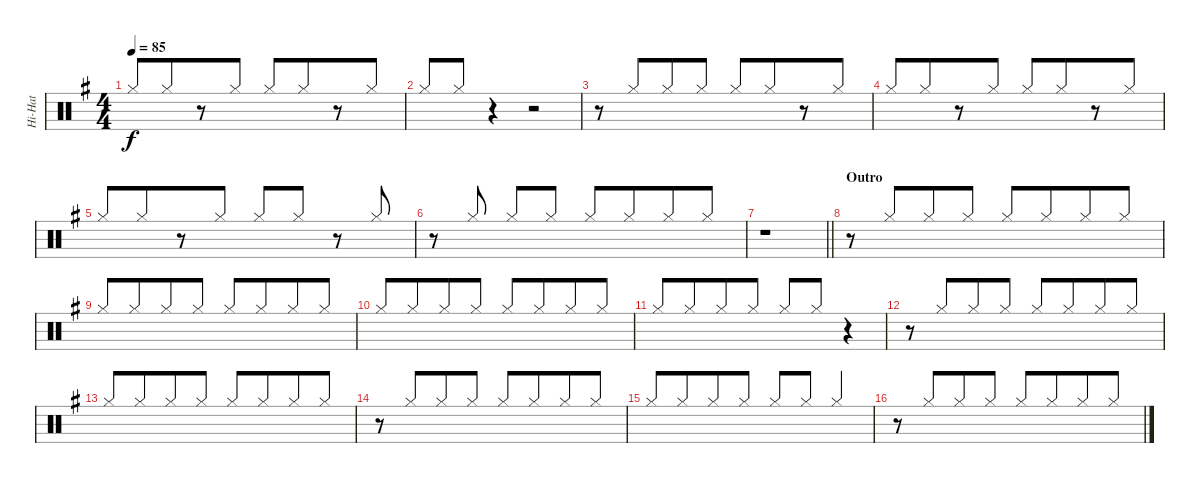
\track ("Hi-Hat" "Hi-Hat") {instrument percussion}
\staff {score}
\articulation defaults
\ts (4 4)
\tempo 85
\clef neutral
\ks g "Hi-Hat (closed)".8{dy f beam Up} "Hi-Hat (closed)".8{beam Up beam merge}
r.8 "Hi-Hat (closed)".8{beam Up} "Hi-Hat (closed)".8{beam Up} "Hi-Hat (closed)".8{beam Up beam merge} r.8 "Hi-Hat (closed)".8{beam Up} |
"Hi-Hat (closed)".8{beam Up} "Hi-Hat (closed)".8{beam Up} r.4 r.2 |
r.8 "Hi-Hat (closed)".8{beam Up beam merge} "Hi-Hat (closed)".8{beam Up} "Hi-Hat (closed)".8{beam Up} "Hi-Hat (closed)".8{beam Up} "Hi-Hat (closed)".8{beam Up beam merge} r.8 "Hi-Hat (closed)".8{beam Up} |
"Hi-Hat (closed)".8{beam Up} "Hi-Hat (closed)".8{beam Up beam merge} r.8 "Hi-Hat (closed)".8{beam Up} "Hi-Hat (closed)".8{beam Up} "Hi-Hat (closed)".8{beam Up beam merge} r.8 "Hi-Hat (closed)".8{beam Up} |
"Hi-Hat (closed)".8{beam Up} "Hi-Hat (closed)".8{beam Up beam merge} r.8 "Hi-Hat (closed)".8{beam Up} "Hi-Hat (closed)".8{beam Up} "Hi-Hat (closed)".8{beam Up} r.8 "Hi-Hat (closed)".8{beam Up} |
r.8 "Hi-Hat (closed)".8{beam Up} "Hi-Hat (closed)".8{beam Up} "Hi-Hat (closed)".8{beam Up} "Hi-Hat (closed)".8{beam Up} "Hi-Hat (closed)".8{beam Up beam merge} "Hi-Hat (closed)".8{beam Up} "Hi-Hat (closed)".8{beam Up} |
\barLineRight lightlight
r.1 |
\section ("" "Outro")
r.8 "Hi-Hat (closed)".8{beam Up beam merge} "Hi-Hat (closed)".8{beam Up} "Hi-Hat (closed)".8{beam Up} "Hi-Hat (closed)".8{beam Up} "Hi-Hat (closed)".8{beam Up beam merge} "Hi-Hat (closed)".8{beam Up} "Hi-Hat (closed)".8{beam Up} |
"Hi-Hat (closed)".8{beam Up} "Hi-Hat (closed)".8{beam Up beam merge} "Hi-Hat (closed)".8{beam Up} "Hi-Hat (closed)".8{beam Up} "Hi-Hat (closed)".8{beam Up} "Hi-Hat (closed)".8{beam Up beam merge} "Hi-Hat (closed)".8{beam Up} "Hi-Hat (closed)".8{beam Up} |
"Hi-Hat (closed)".8{beam Up} "Hi-Hat (closed)".8{beam Up beam merge} "Hi-Hat (closed)".8{beam Up} "Hi-Hat (closed)".8{beam Up} "Hi-Hat (closed)".8{beam Up} "Hi-Hat (closed)".8{beam Up beam merge} "Hi-Hat (closed)".8{beam Up} "Hi-Hat (closed)".8{beam Up} |
"Hi-Hat (closed)".8{beam Up} "Hi-Hat (closed)".8{beam Up beam merge} "Hi-Hat (closed)".8{beam Up} "Hi-Hat (closed)".8{beam Up} "Hi-Hat (closed)".8{beam Up} "Hi-Hat (closed)".8{beam Up} r.4 |
r.8 "Hi-Hat (closed)".8{beam Up beam merge} "Hi-Hat (closed)".8{beam Up} "Hi-Hat (closed)".8{beam Up} "Hi-Hat (closed)".8{beam Up} "Hi-Hat (closed)".8{beam Up beam merge} "Hi-Hat (closed)".8{beam Up} "Hi-Hat (closed)".8{beam Up} |
"Hi-Hat (closed)".8{beam Up} "Hi-Hat (closed)".8{beam Up beam merge} "Hi-Hat (closed)".8{beam Up} "Hi-Hat (closed)".8{beam Up} "Hi-Hat (closed)".8{beam Up} "Hi-Hat (closed)".8{beam Up beam merge} "Hi-Hat (closed)".8{beam Up} "Hi-Hat (closed)".8{beam Up} |
r.8 "Hi-Hat (closed)".8{beam Up beam merge} "Hi-Hat (closed)".8{beam Up} "Hi-Hat (closed)".8{beam Up} "Hi-Hat (closed)".8{beam Up} "Hi-Hat (closed)".8{beam Up beam merge} "Hi-Hat (closed)".8{beam Up} "Hi-Hat (closed)".8{beam Up} |
"Hi-Hat (closed)".8{beam Up} "Hi-Hat (closed)".8{beam Up beam merge} "Hi-Hat (closed)".8{beam Up} "Hi-Hat (closed)".8{beam Up} "Hi-Hat (closed)".8{beam Up} "Hi-Hat (closed)".8{beam Up} "Hi-Hat (closed)".4{beam Up} |
r.8 "Hi-Hat (closed)".8{beam Up beam merge} "Hi-Hat (closed)".8{beam Up} "Hi-Hat (closed)".8{beam Up} "Hi-Hat (closed)".8{beam Up} "Hi-Hat (closed)".8{beam Up beam merge} "Hi-Hat (closed)".8{beam Up} "Hi-Hat (closed)".8{beam Up}
